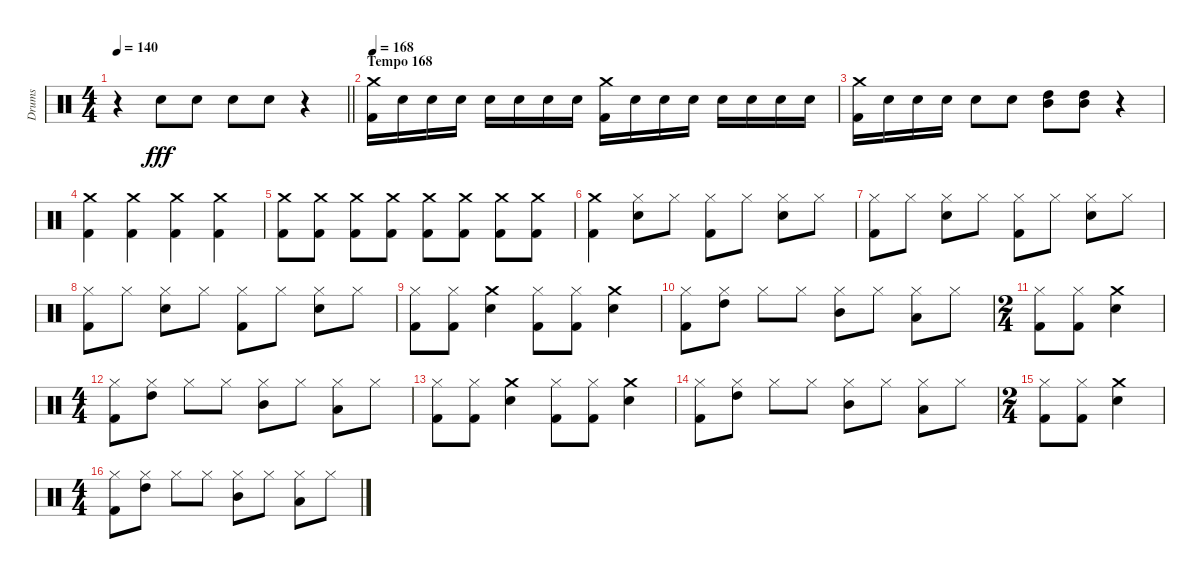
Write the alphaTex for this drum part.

\track ("Drums" "Drums") {instrument percussion}
\staff {score}
\articulation defaults
\ts (4 4)
\tempo 140
\clef neutral
\barLineRight lightlight
\ks c
r.4{dy fff} "Snare (hit) 2".8 "Snare (hit) 2".8 "Snare (hit) 2".8 "Snare (hit) 2".8 r.4 |
\section ("" "Tempo 168")
\tempo 168
("Kick (hit) 2" "Crash medium (hit)").16 "Snare (hit) 2".16 "Snare (hit) 2".16 "Snare (hit) 2".16 "Snare (hit) 2".16 "Snare (hit) 2".16 "Snare (hit) 2".16 "Snare (hit) 2".16 ("Kick (hit) 2" "Crash medium (hit)").16 "Snare (hit) 2".16 "Snare (hit) 2".16 "Snare (hit) 2".16 "Snare (hit) 2".16 "Snare (hit) 2".16 "Snare (hit) 2".16 "Snare (hit) 2".16 |
("Kick (hit) 2" "Crash medium (hit)").16 "Snare (hit) 2".16 "Snare (hit) 2".16 "Snare (hit) 2".16 "Snare (hit) 2".8 "Snare (hit) 2".8 ("High Tom (hit)" "Mid Tom (hit)").8 ("High Tom (hit)" "Mid Tom (hit)").8 r.4 |
("Crash medium (hit)" "Kick (hit) 2").4 ("Crash medium (hit)" "Kick (hit) 2").4 ("Crash medium (hit)" "Kick (hit) 2").4 ("Crash medium (hit)" "Kick (hit) 2").4 |
("Kick (hit) 2" "Crash medium (hit)").8 ("Kick (hit) 2" "Crash medium (hit)").8 ("Kick (hit) 2" "Crash medium (hit)").8 ("Kick (hit) 2" "Crash medium (hit)").8 ("Kick (hit) 2" "Crash medium (hit)").8 ("Kick (hit) 2" "Crash medium (hit)").8 ("Kick (hit) 2" "Crash medium (hit)").8 ("Kick (hit) 2" "Crash medium (hit)").8 |
("Crash medium (hit)" "Kick (hit) 2").4 ("Hi-Hat (closed)" "Snare (hit) 2").8 "Hi-Hat (closed)".8 ("Kick (hit) 2" "Hi-Hat (closed)").8 "Hi-Hat (closed)".8 ("Snare (hit) 2" "Hi-Hat (closed)").8 "Hi-Hat (closed)".8 |
("Kick (hit) 2" "Hi-Hat (closed)").8 "Hi-Hat (closed)".8 ("Snare (hit) 2" "Hi-Hat (closed)").8 "Hi-Hat (closed)".8 ("Kick (hit) 2" "Hi-Hat (closed)").8 "Hi-Hat (closed)".8 ("Snare (hit) 2" "Hi-Hat (closed)").8 "Hi-Hat (closed)".8 |
("Kick (hit) 2" "Hi-Hat (closed)").8 "Hi-Hat (closed)".8 ("Snare (hit) 2" "Hi-Hat (closed)").8 "Hi-Hat (closed)".8 ("Kick (hit) 2" "Hi-Hat (closed)").8 "Hi-Hat (closed)".8 ("Snare (hit) 2" "Hi-Hat (closed)").8 "Hi-Hat (closed)".8 |
("Kick (hit) 2" "Hi-Hat (closed)").8 ("Kick (hit) 2" "Hi-Hat (closed)").8 ("Snare (hit) 2" "Crash medium (hit)").4 ("Hi-Hat (closed)" "Kick (hit) 2").8 ("Hi-Hat (closed)" "Kick (hit) 2").8 ("Crash medium (hit)" "Snare (hit) 2").4 |
("Hi-Hat (closed)" "Kick (hit) 2").8 ("High Tom (hit)" "Hi-Hat (closed)").8{balance 16} "Hi-Hat (closed)".8{balance 8} "Hi-Hat (closed)".8 ("Mid Tom (hit)" "Hi-Hat (closed)").8 "Hi-Hat (closed)".8 ("Low Tom (hit)" "Hi-Hat (closed)").8{balance 0} "Hi-Hat (closed)".8{balance 8} |
\ts (2 4)
("Kick (hit) 2" "Hi-Hat (closed)").8 ("Kick (hit) 2" "Hi-Hat (closed)").8 ("Snare (hit) 2" "Crash medium (hit)").4 |
\ts (4 4)
("Hi-Hat (closed)" "Kick (hit) 2").8 ("High Tom (hit)" "Hi-Hat (closed)").8{balance 16} "Hi-Hat (closed)".8{balance 8} "Hi-Hat (closed)".8 ("Mid Tom (hit)" "Hi-Hat (closed)").8 "Hi-Hat (closed)".8 ("Low Tom (hit)" "Hi-Hat (closed)").8{balance 0} "Hi-Hat (closed)".8{balance 8} |
("Hi-Hat (closed)" "Kick (hit) 2").8 ("Hi-Hat (closed)" "Kick (hit) 2").8 ("Snare (hit) 2" "Crash medium (hit)").4 ("Kick (hit) 2" "Hi-Hat (closed)").8 ("Kick (hit) 2" "Hi-Hat (closed)").8 ("Crash medium (hit)" "Snare (hit) 2").4 |
("Hi-Hat (closed)" "Kick (hit) 2").8 ("High Tom (hit)" "Hi-Hat (closed)").8{balance 16} "Hi-Hat (closed)".8{balance 8} "Hi-Hat (closed)".8 ("Mid Tom (hit)" "Hi-Hat (closed)").8 "Hi-Hat (closed)".8 ("Low Tom (hit)" "Hi-Hat (closed)").8{balance 0} "Hi-Hat (closed)".8{balance 8} |
\ts (2 4)
("Hi-Hat (closed)" "Kick (hit) 2").8 ("Hi-Hat (closed)" "Kick (hit) 2").8 ("Crash medium (hit)" "Snare (hit) 2").4 |
\ts (4 4)
("Hi-Hat (closed)" "Kick (hit) 2").8 ("High Tom (hit)" "Hi-Hat (closed)").8{balance 16} "Hi-Hat (closed)".8{balance 8} "Hi-Hat (closed)".8 ("Mid Tom (hit)" "Hi-Hat (closed)").8 "Hi-Hat (closed)".8 ("Low Tom (hit)" "Hi-Hat (closed)").8{balance 0} "Hi-Hat (closed)".8{balance 8}
